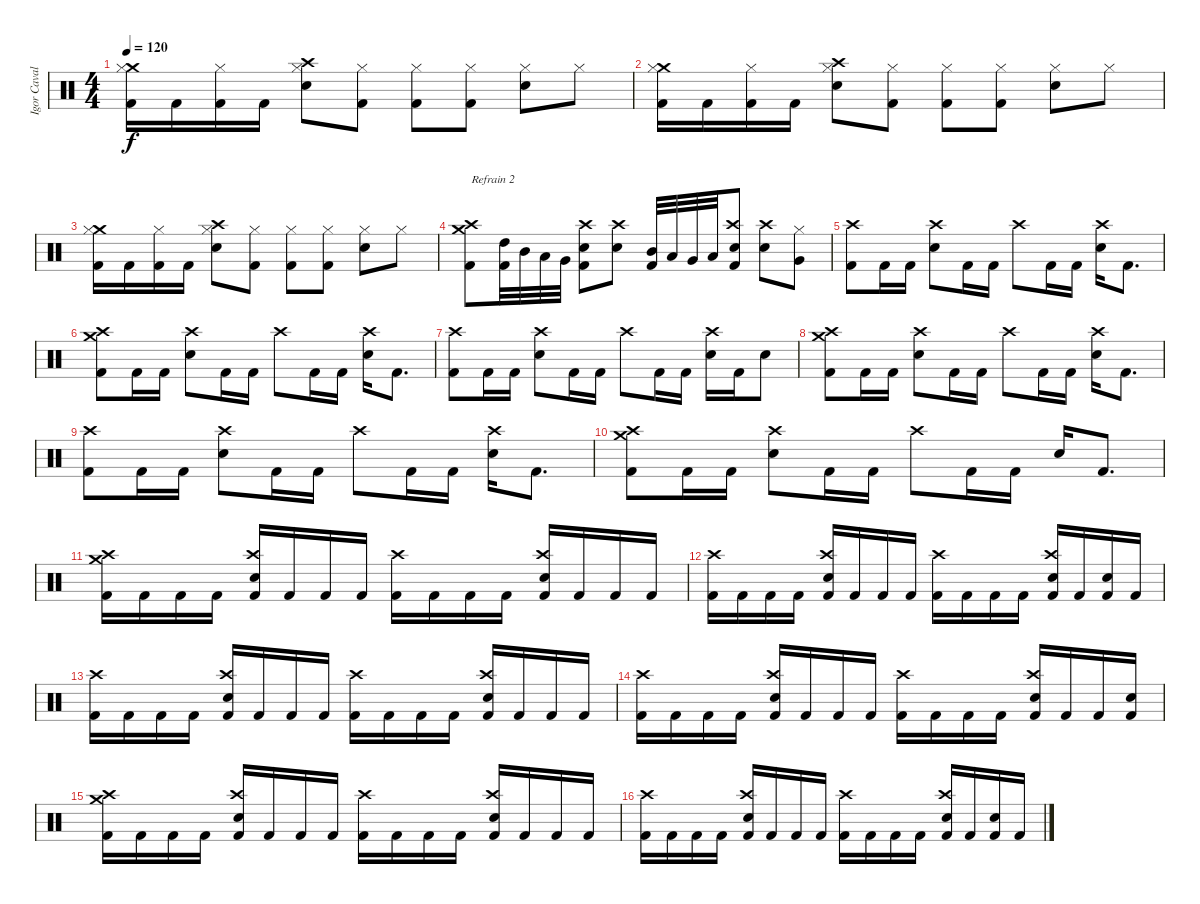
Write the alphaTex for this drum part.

\track ("Igor Cavalera" "Igor Caval") {instrument percussion}
\staff {score}
\articulation defaults
\ts (4 4)
\tempo 120
\clef neutral
\ks c
("Crash medium (hit)" "Hi-Hat (closed)" "Kick (hit) 2").16{dy f} "Kick (hit) 2".16 ("Hi-Hat (closed)" "Kick (hit) 2").16 "Kick (hit) 2".16 ("Crash high (hit)" "Electric Snare (hit)" "Hi-Hat (closed)").8 ("Hi-Hat (closed)" "Kick (hit) 2").8 ("Hi-Hat (closed)" "Kick (hit) 2").8 ("Hi-Hat (closed)" "Kick (hit) 2").8 ("Electric Snare (hit)" "Hi-Hat (closed)").8 "Hi-Hat (closed)".8 |
("Crash medium (hit)" "Hi-Hat (closed)" "Kick (hit) 2").16 "Kick (hit) 2".16 ("Hi-Hat (closed)" "Kick (hit) 2").16 "Kick (hit) 2".16 ("Crash high (hit)" "Electric Snare (hit)" "Hi-Hat (closed)").8 ("Hi-Hat (closed)" "Kick (hit) 2").8 ("Hi-Hat (closed)" "Kick (hit) 2").8 ("Hi-Hat (closed)" "Kick (hit) 2").8 ("Electric Snare (hit)" "Hi-Hat (closed)").8 "Hi-Hat (closed)".8 |
("Crash medium (hit)" "Hi-Hat (closed)" "Kick (hit) 2").16 "Kick (hit) 2".16 ("Hi-Hat (closed)" "Kick (hit) 2").16 "Kick (hit) 2".16 ("Crash high (hit)" "Electric Snare (hit)" "Hi-Hat (closed)").8 ("Hi-Hat (closed)" "Kick (hit) 2").8 ("Hi-Hat (closed)" "Kick (hit) 2").8 ("Hi-Hat (closed)" "Kick (hit) 2").8 ("Electric Snare (hit)" "Hi-Hat (closed)").8 "Hi-Hat (closed)".8 |
("Crash medium (hit)" "Crash high (hit)" "Kick (hit) 2").8{txt "Refrain 2"} ("High Tom (hit)" "Kick (hit) 2").32 "Mid Tom (hit)".32 "Low Tom (hit)".32 "Very Low Tom (hit)".32 ("Crash high (hit)" "Electric Snare (hit)" "Kick (hit) 2").8 ("Crash high (hit)" "Electric Snare (hit)").8 ("Mid Tom (hit)" "Kick (hit) 2").32 "Low Tom (hit)".32 "Very Low Tom (hit)".32 "Low Floor Tom (hit)".32 ("Crash high (hit)" "Electric Snare (hit)" "Kick (hit) 2").8 ("Crash high (hit)" "Electric Snare (hit)").8 ("Very Low Tom (hit)" "Hi-Hat (closed)").8 |
("Crash high (hit)" "Kick (hit) 2").8 "Kick (hit) 2".16 "Kick (hit) 2".16 ("Crash high (hit)" "Electric Snare (hit)").8 "Kick (hit) 2".16 "Kick (hit) 2".16 "Crash high (hit)".8 "Kick (hit) 2".16 "Kick (hit) 2".16 ("Crash high (hit)" "Electric Snare (hit)").16 "Kick (hit) 2".8{d} |
("Crash medium (hit)" "Crash high (hit)" "Kick (hit) 2").8 "Kick (hit) 2".16 "Kick (hit) 2".16 ("Crash high (hit)" "Electric Snare (hit)").8 "Kick (hit) 2".16 "Kick (hit) 2".16 "Crash high (hit)".8 "Kick (hit) 2".16 "Kick (hit) 2".16 ("Crash high (hit)" "Electric Snare (hit)").16 "Kick (hit) 2".8{d} |
("Crash high (hit)" "Kick (hit) 2").8 "Kick (hit) 2".16 "Kick (hit) 2".16 ("Crash high (hit)" "Electric Snare (hit)").8 "Kick (hit) 2".16 "Kick (hit) 2".16 "Crash high (hit)".8 "Kick (hit) 2".16 "Kick (hit) 2".16 ("Crash high (hit)" "Electric Snare (hit)").16 "Kick (hit) 2".16 "Electric Snare (hit)".8 |
("Crash medium (hit)" "Crash high (hit)" "Kick (hit) 2").8 "Kick (hit) 2".16 "Kick (hit) 2".16 ("Crash high (hit)" "Electric Snare (hit)").8 "Kick (hit) 2".16 "Kick (hit) 2".16 "Crash high (hit)".8 "Kick (hit) 2".16 "Kick (hit) 2".16 ("Crash high (hit)" "Electric Snare (hit)").16 "Kick (hit) 2".8{d} |
("Crash high (hit)" "Kick (hit) 2").8 "Kick (hit) 2".16 "Kick (hit) 2".16 ("Crash high (hit)" "Electric Snare (hit)").8 "Kick (hit) 2".16 "Kick (hit) 2".16 "Crash high (hit)".8 "Kick (hit) 2".16 "Kick (hit) 2".16 ("Crash high (hit)" "Electric Snare (hit)").16 "Kick (hit) 2".8{d} |
("Crash medium (hit)" "Crash high (hit)" "Kick (hit) 2").8 "Kick (hit) 2".16 "Kick (hit) 2".16 ("Crash high (hit)" "Electric Snare (hit)").8 "Kick (hit) 2".16 "Kick (hit) 2".16 "Crash high (hit)".8 "Kick (hit) 2".16 "Kick (hit) 2".16 "Electric Snare (hit)".16 "Kick (hit) 2".8{d} |
("Crash medium (hit)" "Crash high (hit)" "Kick (hit) 2").16 "Kick (hit) 2".16 "Kick (hit) 2".16 "Kick (hit) 2".16 ("Crash high (hit)" "Electric Snare (hit)" "Kick (hit) 2").16 "Kick (hit) 2".16 "Kick (hit) 2".16 "Kick (hit) 2".16 ("Crash high (hit)" "Kick (hit) 2").16 "Kick (hit) 2".16 "Kick (hit) 2".16 "Kick (hit) 2".16 ("Crash high (hit)" "Electric Snare (hit)" "Kick (hit) 2").16 "Kick (hit) 2".16 "Kick (hit) 2".16 "Kick (hit) 2".16 |
("Crash high (hit)" "Kick (hit) 2").16 "Kick (hit) 2".16 "Kick (hit) 2".16 "Kick (hit) 2".16 ("Crash high (hit)" "Electric Snare (hit)" "Kick (hit) 2").16 "Kick (hit) 2".16 "Kick (hit) 2".16 "Kick (hit) 2".16 ("Crash high (hit)" "Kick (hit) 2").16 "Kick (hit) 2".16 "Kick (hit) 2".16 "Kick (hit) 2".16 ("Crash high (hit)" "Electric Snare (hit)" "Kick (hit) 2").16 "Kick (hit) 2".16 ("Electric Snare (hit)" "Kick (hit) 2").16 "Kick (hit) 2".16 |
("Crash high (hit)" "Kick (hit) 2").16 "Kick (hit) 2".16 "Kick (hit) 2".16 "Kick (hit) 2".16 ("Crash high (hit)" "Electric Snare (hit)" "Kick (hit) 2").16 "Kick (hit) 2".16 "Kick (hit) 2".16 "Kick (hit) 2".16 ("Crash high (hit)" "Kick (hit) 2").16 "Kick (hit) 2".16 "Kick (hit) 2".16 "Kick (hit) 2".16 ("Crash high (hit)" "Electric Snare (hit)" "Kick (hit) 2").16 "Kick (hit) 2".16 "Kick (hit) 2".16 "Kick (hit) 2".16 |
("Crash high (hit)" "Kick (hit) 2").16 "Kick (hit) 2".16 "Kick (hit) 2".16 "Kick (hit) 2".16 ("Crash high (hit)" "Electric Snare (hit)" "Kick (hit) 2").16 "Kick (hit) 2".16 "Kick (hit) 2".16 "Kick (hit) 2".16 ("Crash high (hit)" "Kick (hit) 2").16 "Kick (hit) 2".16 "Kick (hit) 2".16 "Kick (hit) 2".16 ("Crash high (hit)" "Electric Snare (hit)" "Kick (hit) 2").16 "Kick (hit) 2".16 "Kick (hit) 2".16 ("Electric Snare (hit)" "Kick (hit) 2").16 |
("Crash medium (hit)" "Crash high (hit)" "Kick (hit) 2").16 "Kick (hit) 2".16 "Kick (hit) 2".16 "Kick (hit) 2".16 ("Crash high (hit)" "Electric Snare (hit)" "Kick (hit) 2").16 "Kick (hit) 2".16 "Kick (hit) 2".16 "Kick (hit) 2".16 ("Crash high (hit)" "Kick (hit) 2").16 "Kick (hit) 2".16 "Kick (hit) 2".16 "Kick (hit) 2".16 ("Crash high (hit)" "Electric Snare (hit)" "Kick (hit) 2").16 "Kick (hit) 2".16 "Kick (hit) 2".16 "Kick (hit) 2".16 |
("Crash high (hit)" "Kick (hit) 2").16 "Kick (hit) 2".16 "Kick (hit) 2".16 "Kick (hit) 2".16 ("Crash high (hit)" "Electric Snare (hit)" "Kick (hit) 2").16 "Kick (hit) 2".16 "Kick (hit) 2".16 "Kick (hit) 2".16 ("Crash high (hit)" "Kick (hit) 2").16 "Kick (hit) 2".16 "Kick (hit) 2".16 "Kick (hit) 2".16 ("Crash high (hit)" "Electric Snare (hit)" "Kick (hit) 2").16 "Kick (hit) 2".16 ("Electric Snare (hit)" "Kick (hit) 2").16 "Kick (hit) 2".16
